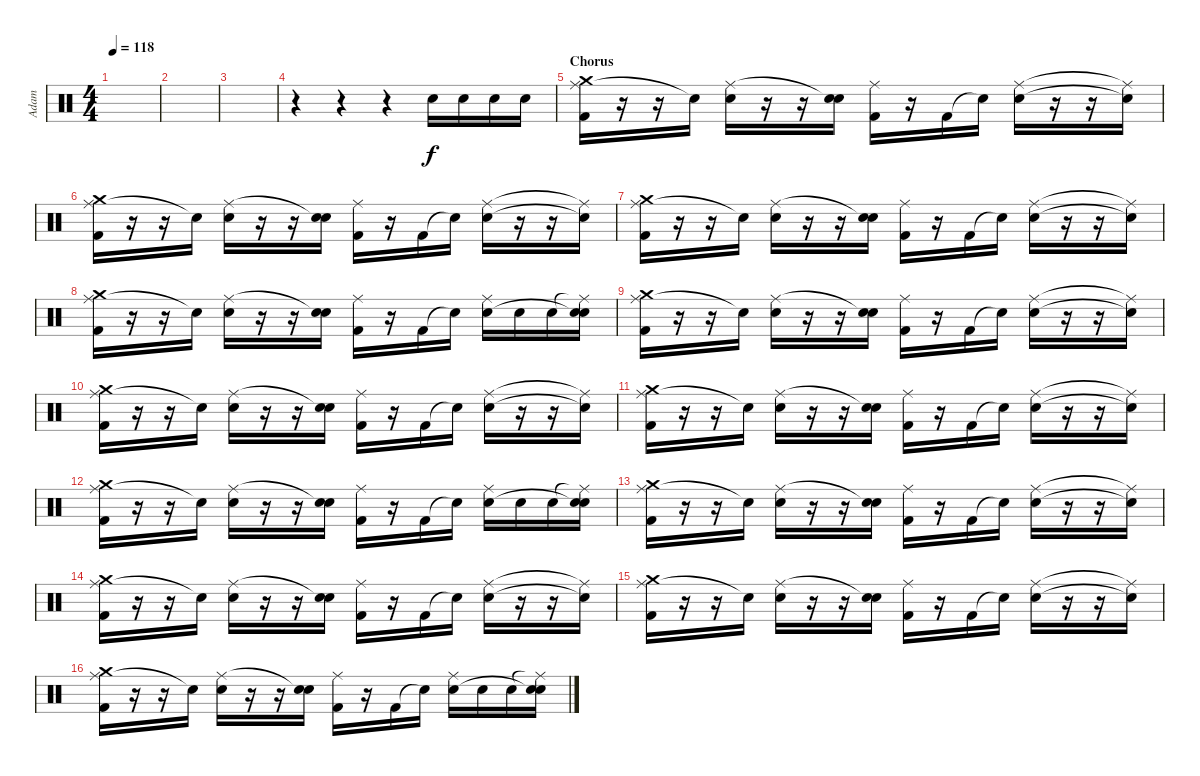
\track ("Adam" "Adam") {instrument percussion}
\staff {score}
\articulation defaults
\ts (4 4)
\tempo 118
\clef neutral
\ks c
|
|
|
r.4 r.4 r.4 "Electric Snare (hit)".16 "Electric Snare (hit)".16 "Electric Snare (hit)".16 "Electric Snare (hit)".16 |
\section ("" "Chorus")
("Ride (middle)" "Crash medium (hit)" "Kick (hit) 2").16 r.16 r.16 "Snare (hit)"{t}.16 ("Ride (middle)" "Snare (hit) 2").16 r.16 r.16 ("Snare (hit)"{t} "Snare (hit) 2").16 ("Ride (middle)" "Kick (hit) 2").16 r.16 "Kick (hit) 2".16 "Snare (hit)"{t}.16 ("Ride (middle)" "Snare (hit) 2").16 r.16 r.16 ("Ride (middle)"{t} "Snare (hit)"{t}).16 |
("Ride (middle)" "Crash medium (hit)" "Kick (hit) 2").16 r.16 r.16 "Snare (hit)"{t}.16 ("Ride (middle)" "Snare (hit) 2").16 r.16 r.16 ("Snare (hit)"{t} "Snare (hit) 2").16 ("Ride (middle)" "Kick (hit) 2").16 r.16 "Kick (hit) 2".16 "Snare (hit)"{t}.16 ("Ride (middle)" "Snare (hit) 2").16 r.16 r.16 ("Ride (middle)"{t} "Snare (hit)"{t}).16 |
("Ride (middle)" "Crash medium (hit)" "Kick (hit) 2").16 r.16 r.16 "Snare (hit)"{t}.16 ("Ride (middle)" "Snare (hit) 2").16 r.16 r.16 ("Snare (hit)"{t} "Snare (hit) 2").16 ("Ride (middle)" "Kick (hit) 2").16 r.16 "Kick (hit) 2".16 "Snare (hit)"{t}.16 ("Ride (middle)" "Snare (hit) 2").16 r.16 r.16 ("Ride (middle)"{t} "Snare (hit)"{t}).16 |
("Ride (middle)" "Crash medium (hit)" "Kick (hit) 2").16 r.16 r.16 "Snare (hit)"{t}.16 ("Ride (middle)" "Snare (hit) 2").16 r.16 r.16 ("Snare (hit)"{t} "Snare (hit) 2").16 ("Ride (middle)" "Kick (hit) 2").16 r.16 "Kick (hit) 2".16 "Snare (hit)"{t}.16 ("Ride (middle)" "Snare (hit) 2").16 "Snare (hit) 2".16 "Snare (hit) 2".16 ("Ride (middle)"{t} "Snare (hit)"{t} "Snare (hit) 2").16 |
("Ride (middle)" "Crash medium (hit)" "Kick (hit) 2").16 r.16 r.16 "Snare (hit)"{t}.16 ("Ride (middle)" "Snare (hit) 2").16 r.16 r.16 ("Snare (hit)"{t} "Snare (hit) 2").16 ("Ride (middle)" "Kick (hit) 2").16 r.16 "Kick (hit) 2".16 "Snare (hit)"{t}.16 ("Ride (middle)" "Snare (hit) 2").16 r.16 r.16 ("Ride (middle)"{t} "Snare (hit)"{t}).16 |
("Ride (middle)" "Crash medium (hit)" "Kick (hit) 2").16 r.16 r.16 "Snare (hit)"{t}.16 ("Ride (middle)" "Snare (hit) 2").16 r.16 r.16 ("Snare (hit)"{t} "Snare (hit) 2").16 ("Ride (middle)" "Kick (hit) 2").16 r.16 "Kick (hit) 2".16 "Snare (hit)"{t}.16 ("Ride (middle)" "Snare (hit) 2").16 r.16 r.16 ("Ride (middle)"{t} "Snare (hit)"{t}).16 |
("Ride (middle)" "Crash medium (hit)" "Kick (hit) 2").16 r.16 r.16 "Snare (hit)"{t}.16 ("Ride (middle)" "Snare (hit) 2").16 r.16 r.16 ("Snare (hit)"{t} "Snare (hit) 2").16 ("Ride (middle)" "Kick (hit) 2").16 r.16 "Kick (hit) 2".16 "Snare (hit)"{t}.16 ("Ride (middle)" "Snare (hit) 2").16 r.16 r.16 ("Ride (middle)"{t} "Snare (hit)"{t}).16 |
("Ride (middle)" "Crash medium (hit)" "Kick (hit) 2").16 r.16 r.16 "Snare (hit)"{t}.16 ("Ride (middle)" "Snare (hit) 2").16 r.16 r.16 ("Snare (hit)"{t} "Snare (hit) 2").16 ("Ride (middle)" "Kick (hit) 2").16 r.16 "Kick (hit) 2".16 "Snare (hit)"{t}.16 ("Ride (middle)" "Snare (hit) 2").16 "Snare (hit) 2".16 "Snare (hit) 2".16 ("Ride (middle)"{t} "Snare (hit)"{t} "Snare (hit) 2").16 |
("Ride (middle)" "Crash medium (hit)" "Kick (hit) 2").16 r.16 r.16 "Snare (hit)"{t}.16 ("Ride (middle)" "Snare (hit) 2").16 r.16 r.16 ("Snare (hit)"{t} "Snare (hit) 2").16 ("Ride (middle)" "Kick (hit) 2").16 r.16 "Kick (hit) 2".16 "Snare (hit)"{t}.16 ("Ride (middle)" "Snare (hit) 2").16 r.16 r.16 ("Ride (middle)"{t} "Snare (hit)"{t}).16 |
("Ride (middle)" "Crash medium (hit)" "Kick (hit) 2").16 r.16 r.16 "Snare (hit)"{t}.16 ("Ride (middle)" "Snare (hit) 2").16 r.16 r.16 ("Snare (hit)"{t} "Snare (hit) 2").16 ("Ride (middle)" "Kick (hit) 2").16 r.16 "Kick (hit) 2".16 "Snare (hit)"{t}.16 ("Ride (middle)" "Snare (hit) 2").16 r.16 r.16 ("Ride (middle)"{t} "Snare (hit)"{t}).16 |
("Ride (middle)" "Crash medium (hit)" "Kick (hit) 2").16 r.16 r.16 "Snare (hit)"{t}.16 ("Ride (middle)" "Snare (hit) 2").16 r.16 r.16 ("Snare (hit)"{t} "Snare (hit) 2").16 ("Ride (middle)" "Kick (hit) 2").16 r.16 "Kick (hit) 2".16 "Snare (hit)"{t}.16 ("Ride (middle)" "Snare (hit) 2").16 r.16 r.16 ("Ride (middle)"{t} "Snare (hit)"{t}).16 |
("Ride (middle)" "Crash medium (hit)" "Kick (hit) 2").16 r.16 r.16 "Snare (hit)"{t}.16 ("Ride (middle)" "Snare (hit) 2").16 r.16 r.16 ("Snare (hit)"{t} "Snare (hit) 2").16 ("Ride (middle)" "Kick (hit) 2").16 r.16 "Kick (hit) 2".16 "Snare (hit)"{t}.16 ("Ride (middle)" "Snare (hit) 2").16 "Snare (hit) 2".16 "Snare (hit) 2".16 ("Ride (middle)"{t} "Snare (hit)"{t} "Snare (hit) 2").16
